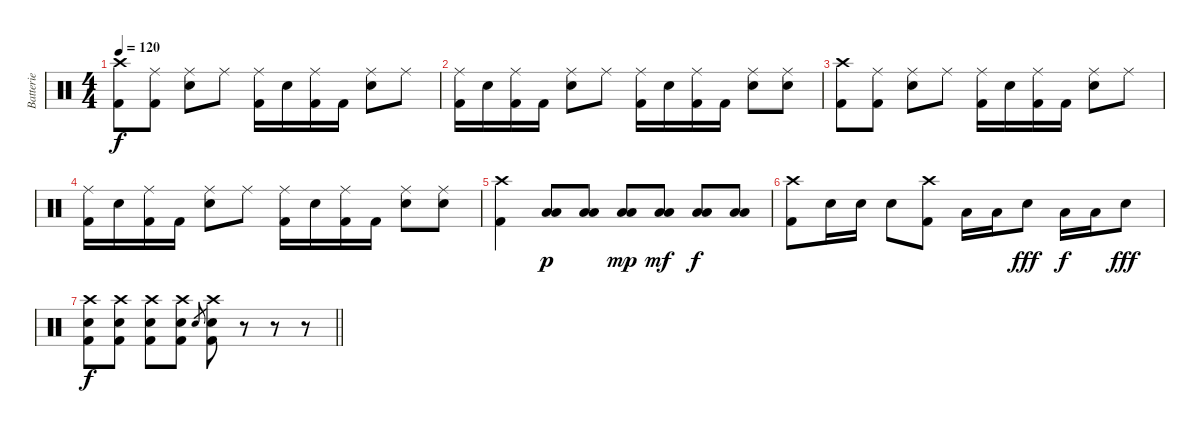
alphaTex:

\track ("Batterie" "Batterie") {instrument percussion}
\staff {score}
\articulation defaults
\ts (4 4)
\tempo 120
\clef neutral
\ks c
("Crash high (hit)" "Kick (hit) 2").8{dy f} ("Ride (middle)" "Kick (hit) 2").8 ("Ride (middle)" "Electric Snare (hit)").8 "Ride (middle)".8 ("Ride (middle)" "Kick (hit) 2").16 "Electric Snare (hit)".16 ("Ride (middle)" "Kick (hit) 2").16 "Kick (hit) 2".16 ("Ride (middle)" "Electric Snare (hit)").8 "Ride (middle)".8 |
("Ride (middle)" "Kick (hit) 2").16 "Electric Snare (hit)".16 ("Ride (middle)" "Kick (hit) 2").16 "Kick (hit) 2".16 ("Ride (middle)" "Electric Snare (hit)").8 "Ride (middle)".8 ("Ride (middle)" "Kick (hit) 2").16 "Electric Snare (hit)".16 ("Ride (middle)" "Kick (hit) 2").16 "Kick (hit) 2".16 ("Ride (middle)" "Electric Snare (hit)").8 ("Ride (middle)" "Electric Snare (hit)").8 |
("Crash high (hit)" "Kick (hit) 2").8 ("Ride (middle)" "Kick (hit) 2").8 ("Ride (middle)" "Electric Snare (hit)").8 "Ride (middle)".8 ("Ride (middle)" "Kick (hit) 2").16 "Electric Snare (hit)".16 ("Ride (middle)" "Kick (hit) 2").16 "Kick (hit) 2".16 ("Ride (middle)" "Electric Snare (hit)").8 "Ride (middle)".8 |
("Ride (middle)" "Kick (hit) 2").16 "Electric Snare (hit)".16 ("Ride (middle)" "Kick (hit) 2").16 "Kick (hit) 2".16 ("Ride (middle)" "Electric Snare (hit)").8 "Ride (middle)".8 ("Ride (middle)" "Kick (hit) 2").16 "Electric Snare (hit)".16 ("Ride (middle)" "Kick (hit) 2").16 "Kick (hit) 2".16 ("Ride (middle)" "Electric Snare (hit)").8 ("Ride (middle)" "Electric Snare (hit)").8 |
("Crash high (hit)" "Kick (hit) 2").4 ("Low Floor Tom (hit)" "Low Tom (hit)").8{dy p} ("Low Floor Tom (hit)" "Low Tom (hit)").8 ("Low Floor Tom (hit)" "Low Tom (hit)").8{dy mp} ("Low Floor Tom (hit)" "Low Tom (hit)").8{dy mf} ("Low Floor Tom (hit)" "Low Tom (hit)").8{dy f} ("Low Floor Tom (hit)" "Low Tom (hit)").8 |
("Crash high (hit)" "Kick (hit) 2").8 "Electric Snare (hit)".16 "Electric Snare (hit)".16 "Electric Snare (hit)".8 ("Crash high (hit)" "Kick (hit) 2").8 "Low Tom (hit)".16 "Low Tom (hit)".16 "Electric Snare (hit)".8{dy fff} "Low Tom (hit)".16{dy f} "Low Tom (hit)".16 "Electric Snare (hit)".8{dy fff} |
\barLineRight lightlight
("Crash high (hit)" "Electric Snare (hit)" "Kick (hit) 2").8{dy f} ("Crash high (hit)" "Electric Snare (hit)" "Kick (hit) 2").8 ("Crash high (hit)" "Electric Snare (hit)" "Kick (hit) 2").8 ("Crash high (hit)" "Electric Snare (hit)" "Kick (hit) 2").8 "Electric Snare (hit)".8{gr} ("Crash high (hit)" "Electric Snare (hit)" "Kick (hit) 2").8 r.8 r.8 r.8
